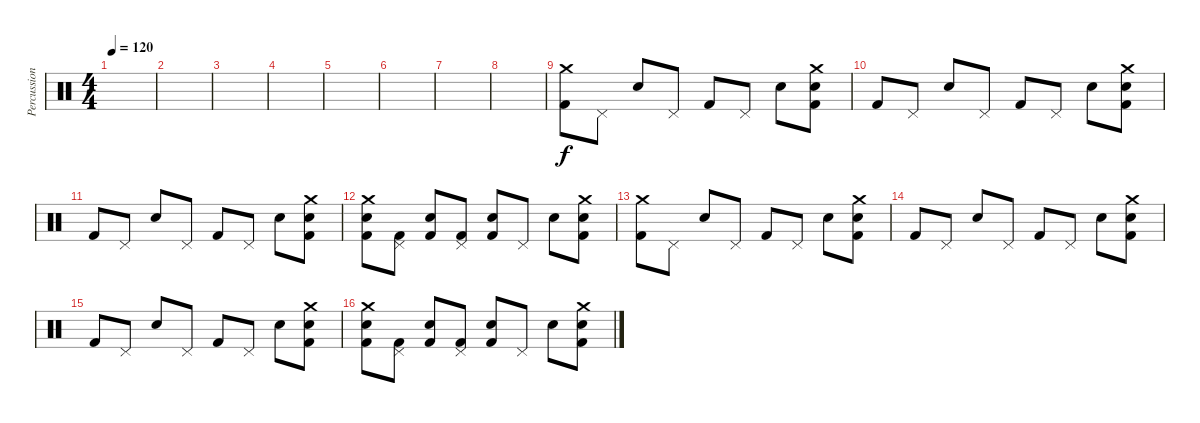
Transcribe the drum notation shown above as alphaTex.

\track ("Percussions" "Percussion") {instrument percussion}
\staff {score}
\articulation defaults
\ts (4 4)
\tempo 120
\clef neutral
\ks c
|
|
|
|
|
|
|
|
("Crash medium (hit)" "Kick (hit) 2").8 "Pedal Hi-Hat (hit)".8 "Electric Snare (hit)".8 "Pedal Hi-Hat (hit)".8 "Kick (hit) 2".8 "Pedal Hi-Hat (hit)".8 "Electric Snare (hit)".8 ("Crash medium (hit)" "Electric Snare (hit)" "Kick (hit) 2").8 |
"Kick (hit) 2".8 "Pedal Hi-Hat (hit)".8 "Electric Snare (hit)".8 "Pedal Hi-Hat (hit)".8 "Kick (hit) 2".8 "Pedal Hi-Hat (hit)".8 "Electric Snare (hit)".8 ("Crash medium (hit)" "Electric Snare (hit)" "Kick (hit) 2").8 |
"Kick (hit) 2".8 "Pedal Hi-Hat (hit)".8 "Electric Snare (hit)".8 "Pedal Hi-Hat (hit)".8 "Kick (hit) 2".8 "Pedal Hi-Hat (hit)".8 "Electric Snare (hit)".8 ("Crash medium (hit)" "Electric Snare (hit)" "Kick (hit) 2").8 |
("Crash medium (hit)" "Electric Snare (hit)" "Kick (hit) 2").8 ("Pedal Hi-Hat (hit)" "Kick (hit) 2").8 ("Electric Snare (hit)" "Kick (hit) 2").8 ("Pedal Hi-Hat (hit)" "Kick (hit) 2").8 ("Electric Snare (hit)" "Kick (hit) 2").8 "Pedal Hi-Hat (hit)".8 "Electric Snare (hit)".8 ("Crash medium (hit)" "Electric Snare (hit)" "Kick (hit) 2").8 |
("Crash medium (hit)" "Kick (hit) 2").8 "Pedal Hi-Hat (hit)".8 "Electric Snare (hit)".8 "Pedal Hi-Hat (hit)".8 "Kick (hit) 2".8 "Pedal Hi-Hat (hit)".8 "Electric Snare (hit)".8 ("Crash medium (hit)" "Electric Snare (hit)" "Kick (hit) 2").8 |
"Kick (hit) 2".8 "Pedal Hi-Hat (hit)".8 "Electric Snare (hit)".8 "Pedal Hi-Hat (hit)".8 "Kick (hit) 2".8 "Pedal Hi-Hat (hit)".8 "Electric Snare (hit)".8 ("Crash medium (hit)" "Electric Snare (hit)" "Kick (hit) 2").8 |
"Kick (hit) 2".8 "Pedal Hi-Hat (hit)".8 "Electric Snare (hit)".8 "Pedal Hi-Hat (hit)".8 "Kick (hit) 2".8 "Pedal Hi-Hat (hit)".8 "Electric Snare (hit)".8 ("Crash medium (hit)" "Electric Snare (hit)" "Kick (hit) 2").8 |
("Crash medium (hit)" "Electric Snare (hit)" "Kick (hit) 2").8 ("Pedal Hi-Hat (hit)" "Kick (hit) 2").8 ("Electric Snare (hit)" "Kick (hit) 2").8 ("Pedal Hi-Hat (hit)" "Kick (hit) 2").8 ("Electric Snare (hit)" "Kick (hit) 2").8 "Pedal Hi-Hat (hit)".8 "Electric Snare (hit)".8 ("Crash medium (hit)" "Electric Snare (hit)" "Kick (hit) 2").8
